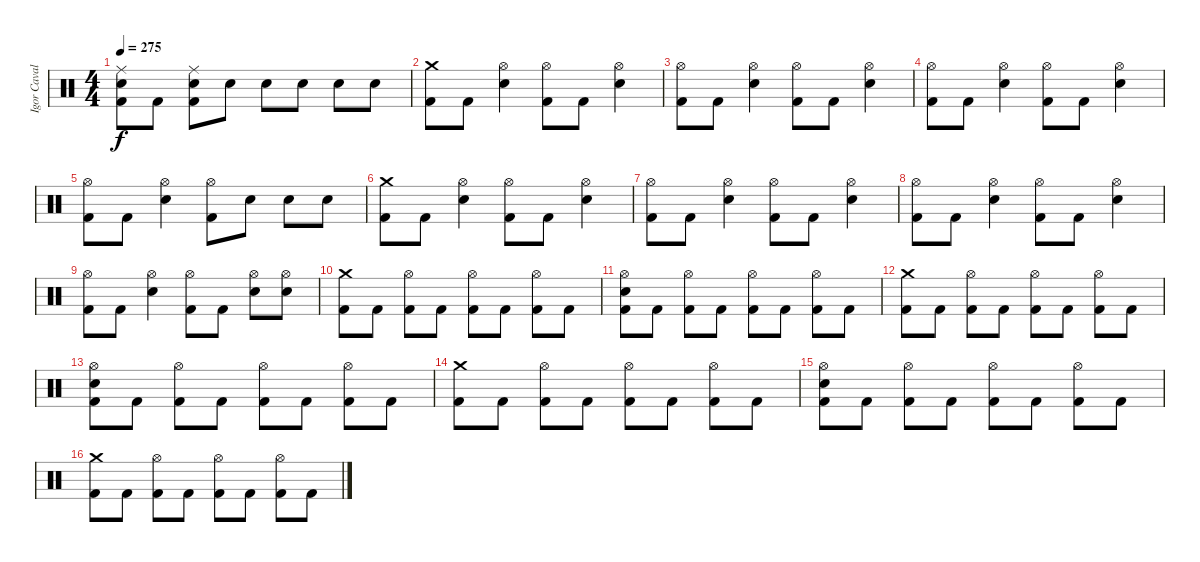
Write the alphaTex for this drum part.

\track ("Igor Cavalera" "Igor Caval") {instrument percussion}
\staff {score}
\articulation defaults
\ts (4 4)
\tempo 275
\clef neutral
\ks c
("Ride (middle)" "Electric Snare (hit)" "Kick (hit) 2").8{dy f} "Kick (hit) 2".8 ("Ride (middle)" "Electric Snare (hit)" "Kick (hit) 2").8 "Electric Snare (hit)".8 "Electric Snare (hit)".8 "Electric Snare (hit)".8 "Electric Snare (hit)".8 "Electric Snare (hit)".8 |
("Crash medium (hit)" "Kick (hit) 2").8 "Kick (hit) 2".8 ("Hi-Hat (open)" "Electric Snare (hit)").4 ("Hi-Hat (open)" "Kick (hit) 2").8 "Kick (hit) 2".8 ("Hi-Hat (open)" "Electric Snare (hit)").4 |
("Hi-Hat (open)" "Kick (hit) 2").8 "Kick (hit) 2".8 ("Hi-Hat (open)" "Electric Snare (hit)").4 ("Hi-Hat (open)" "Kick (hit) 2").8 "Kick (hit) 2".8 ("Hi-Hat (open)" "Electric Snare (hit)").4 |
("Hi-Hat (open)" "Kick (hit) 2").8 "Kick (hit) 2".8 ("Hi-Hat (open)" "Electric Snare (hit)").4 ("Hi-Hat (open)" "Kick (hit) 2").8 "Kick (hit) 2".8 ("Hi-Hat (open)" "Electric Snare (hit)").4 |
("Hi-Hat (open)" "Kick (hit) 2").8 "Kick (hit) 2".8 ("Hi-Hat (open)" "Electric Snare (hit)").4 ("Hi-Hat (open)" "Kick (hit) 2").8 "Electric Snare (hit)".8 "Electric Snare (hit)".8 "Electric Snare (hit)".8 |
("Crash medium (hit)" "Kick (hit) 2").8 "Kick (hit) 2".8 ("Hi-Hat (open)" "Electric Snare (hit)").4 ("Hi-Hat (open)" "Kick (hit) 2").8 "Kick (hit) 2".8 ("Hi-Hat (open)" "Electric Snare (hit)").4 |
("Hi-Hat (open)" "Kick (hit) 2").8 "Kick (hit) 2".8 ("Hi-Hat (open)" "Electric Snare (hit)").4 ("Hi-Hat (open)" "Kick (hit) 2").8 "Kick (hit) 2".8 ("Hi-Hat (open)" "Electric Snare (hit)").4 |
("Hi-Hat (open)" "Kick (hit) 2").8 "Kick (hit) 2".8 ("Hi-Hat (open)" "Electric Snare (hit)").4 ("Hi-Hat (open)" "Kick (hit) 2").8 "Kick (hit) 2".8 ("Hi-Hat (open)" "Electric Snare (hit)").4 |
("Hi-Hat (open)" "Kick (hit) 2").8 "Kick (hit) 2".8 ("Hi-Hat (open)" "Electric Snare (hit)").4 ("Hi-Hat (open)" "Kick (hit) 2").8 "Kick (hit) 2".8 ("Hi-Hat (open)" "Electric Snare (hit)").8 ("Electric Snare (hit)" "Hi-Hat (open)").8 |
("Crash medium (hit)" "Kick (hit) 2").8 "Kick (hit) 2".8 ("Hi-Hat (open)" "Kick (hit) 2").8 "Kick (hit) 2".8 ("Hi-Hat (open)" "Kick (hit) 2").8 "Kick (hit) 2".8 ("Hi-Hat (open)" "Kick (hit) 2").8 "Kick (hit) 2".8 |
("Hi-Hat (open)" "Electric Snare (hit)" "Kick (hit) 2").8 "Kick (hit) 2".8 ("Hi-Hat (open)" "Kick (hit) 2").8 "Kick (hit) 2".8 ("Hi-Hat (open)" "Kick (hit) 2").8 "Kick (hit) 2".8 ("Hi-Hat (open)" "Kick (hit) 2").8 "Kick (hit) 2".8 |
("Crash medium (hit)" "Kick (hit) 2").8 "Kick (hit) 2".8 ("Hi-Hat (open)" "Kick (hit) 2").8 "Kick (hit) 2".8 ("Hi-Hat (open)" "Kick (hit) 2").8 "Kick (hit) 2".8 ("Hi-Hat (open)" "Kick (hit) 2").8 "Kick (hit) 2".8 |
("Hi-Hat (open)" "Electric Snare (hit)" "Kick (hit) 2").8 "Kick (hit) 2".8 ("Hi-Hat (open)" "Kick (hit) 2").8 "Kick (hit) 2".8 ("Hi-Hat (open)" "Kick (hit) 2").8 "Kick (hit) 2".8 ("Hi-Hat (open)" "Kick (hit) 2").8 "Kick (hit) 2".8 |
("Crash medium (hit)" "Kick (hit) 2").8 "Kick (hit) 2".8 ("Hi-Hat (open)" "Kick (hit) 2").8 "Kick (hit) 2".8 ("Hi-Hat (open)" "Kick (hit) 2").8 "Kick (hit) 2".8 ("Hi-Hat (open)" "Kick (hit) 2").8 "Kick (hit) 2".8 |
("Hi-Hat (open)" "Electric Snare (hit)" "Kick (hit) 2").8 "Kick (hit) 2".8 ("Hi-Hat (open)" "Kick (hit) 2").8 "Kick (hit) 2".8 ("Hi-Hat (open)" "Kick (hit) 2").8 "Kick (hit) 2".8 ("Hi-Hat (open)" "Kick (hit) 2").8 "Kick (hit) 2".8 |
("Crash medium (hit)" "Kick (hit) 2").8 "Kick (hit) 2".8 ("Hi-Hat (open)" "Kick (hit) 2").8 "Kick (hit) 2".8 ("Hi-Hat (open)" "Kick (hit) 2").8 "Kick (hit) 2".8 ("Hi-Hat (open)" "Kick (hit) 2").8 "Kick (hit) 2".8
